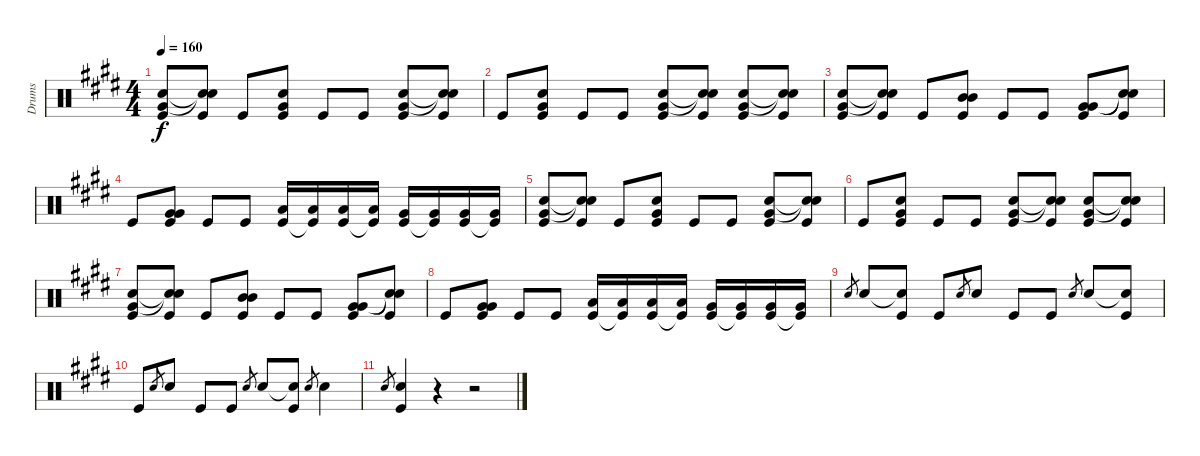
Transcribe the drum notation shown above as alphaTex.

\track ("Drums" "Drums") {instrument percussion}
\staff {score}
\articulation defaults
\ts (4 4)
\tempo 160
\clef neutral
\ks e
("Snare (hit) 2" "Very Low Tom (hit)" "Kick (hit)").8{dy f} ("Snare (hit)"{t} "Snare (hit)"{t} "Kick (hit)").8 "Kick (hit)".8 ("Snare (hit) 2" "Very Low Tom (hit)" "Kick (hit)").8 "Kick (hit)".8 "Kick (hit)".8 ("Snare (hit) 2" "Very Low Tom (hit)" "Kick (hit)").8 ("Snare (hit)"{t} "Snare (hit)"{t} "Kick (hit)").8 |
"Kick (hit)".8 ("Snare (hit) 2" "Very Low Tom (hit)" "Kick (hit)").8 "Kick (hit)".8 "Kick (hit)".8 ("Snare (hit) 2" "Very Low Tom (hit)" "Kick (hit)").8 ("Snare (hit)"{t} "Snare (hit)"{t} "Kick (hit)").8 ("Snare (hit) 2" "Very Low Tom (hit)" "Kick (hit)").8 ("Snare (hit)"{t} "Snare (hit)"{t} "Kick (hit)").8 |
("Snare (hit) 2" "Very Low Tom (hit)" "Kick (hit)").8 ("Snare (hit)"{t} "Snare (hit)"{t} "Kick (hit)").8 "Kick (hit)".8 ("Mid Tom (hit)" "Mid Tom (hit)" "Kick (hit)").8 "Kick (hit)".8 "Kick (hit)".8 ("Very Low Tom (hit)" "Very Low Tom (hit)" "Kick (hit)").8 ("Snare (hit)"{t} "Snare (hit)"{t} "Kick (hit)").8 |
"Kick (hit)".8 ("Very Low Tom (hit)" "Very Low Tom (hit)" "Kick (hit)").8 "Kick (hit)".8 "Kick (hit)".8 ("Low Tom (hit)" "Kick (hit)").16 ("Low Tom (hit)" "Kick (hit)"{t}).16 ("Low Tom (hit)" "Kick (hit)").16 ("Low Tom (hit)" "Kick (hit)"{t}).16 ("Very Low Tom (hit)" "Kick (hit)").16 ("Very Low Tom (hit)" "Kick (hit)"{t}).16 ("Very Low Tom (hit)" "Kick (hit)").16 ("Very Low Tom (hit)" "Kick (hit)"{t}).16 |
("Snare (hit) 2" "Very Low Tom (hit)" "Kick (hit)").8 ("Snare (hit)"{t} "Snare (hit)"{t} "Kick (hit)").8 "Kick (hit)".8 ("Snare (hit) 2" "Very Low Tom (hit)" "Kick (hit)").8 "Kick (hit)".8 "Kick (hit)".8 ("Snare (hit) 2" "Very Low Tom (hit)" "Kick (hit)").8 ("Snare (hit)"{t} "Snare (hit)"{t} "Kick (hit)").8 |
"Kick (hit)".8 ("Snare (hit) 2" "Very Low Tom (hit)" "Kick (hit)").8 "Kick (hit)".8 "Kick (hit)".8 ("Snare (hit) 2" "Very Low Tom (hit)" "Kick (hit)").8 ("Snare (hit)"{t} "Snare (hit)"{t} "Kick (hit)").8 ("Snare (hit) 2" "Very Low Tom (hit)" "Kick (hit)").8 ("Snare (hit)"{t} "Snare (hit)"{t} "Kick (hit)").8 |
("Snare (hit) 2" "Very Low Tom (hit)" "Kick (hit)").8 ("Snare (hit)"{t} "Snare (hit)"{t} "Kick (hit)").8 "Kick (hit)".8 ("Mid Tom (hit)" "Mid Tom (hit)" "Kick (hit)").8 "Kick (hit)".8 "Kick (hit)".8 ("Very Low Tom (hit)" "Very Low Tom (hit)" "Kick (hit)").8 ("Snare (hit)"{t} "Snare (hit)"{t} "Kick (hit)").8 |
"Kick (hit)".8 ("Very Low Tom (hit)" "Very Low Tom (hit)" "Kick (hit)").8 "Kick (hit)".8 "Kick (hit)".8 ("Low Tom (hit)" "Kick (hit)").16 ("Low Tom (hit)" "Kick (hit)"{t}).16 ("Low Tom (hit)" "Kick (hit)").16 ("Low Tom (hit)" "Kick (hit)"{t}).16 ("Very Low Tom (hit)" "Kick (hit)").16 ("Very Low Tom (hit)" "Kick (hit)"{t}).16 ("Very Low Tom (hit)" "Kick (hit)").16 ("Very Low Tom (hit)" "Kick (hit)"{t}).16 |
"Snare (hit) 2".8{gr} "Snare (hit) 2".8 ("Snare (hit)"{t} "Kick (hit)").8 "Kick (hit)".8 "Snare (hit) 2".8{gr} "Snare (hit) 2".8 "Kick (hit)".8 "Kick (hit)".8 "Snare (hit) 2".8{gr} "Snare (hit) 2".8 ("Snare (hit)"{t} "Kick (hit)").8 |
"Kick (hit)".8 "Snare (hit) 2".8{gr} "Snare (hit) 2".8 "Kick (hit)".8 "Kick (hit)".8 "Snare (hit) 2".8{gr} "Snare (hit) 2".8 ("Snare (hit)"{t} "Kick (hit)").8 "Snare (hit) 2".8{gr} "Snare (hit) 2".4 |
"Snare (hit) 2".8{gr} ("Snare (hit) 2" "Kick (hit)").4 r.4 r.2
